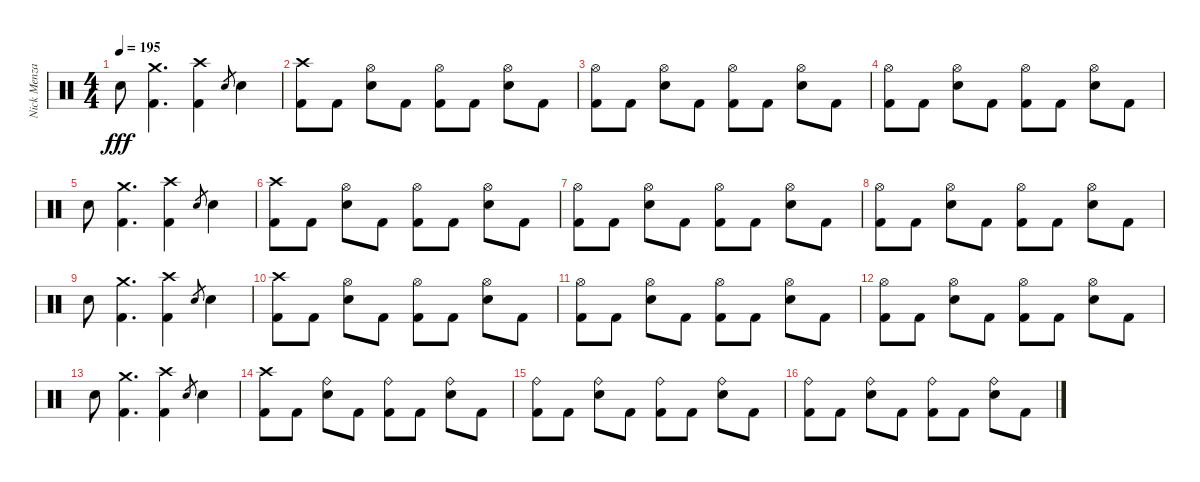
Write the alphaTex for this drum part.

\track ("Nick Menza (Drums)" "Nick Menza") {instrument percussion}
\staff {score}
\articulation defaults
\ts (4 4)
\tempo 195
\clef neutral
\ks c "Electric Snare (hit)".8{dy fff}
("Kick (hit) 2" "Crash medium (hit)").4{d} ("Kick (hit) 2" "Crash high (hit)").4 "Electric Snare (hit)".8{gr} "Electric Snare (hit)".4 |
("Kick (hit) 2" "Crash high (hit)").8 "Kick (hit) 2".8 ("Electric Snare (hit)" "Hi-Hat (open)").8 "Kick (hit) 2".8 ("Kick (hit) 2" "Hi-Hat (open)").8 "Kick (hit) 2".8 ("Electric Snare (hit)" "Hi-Hat (open)").8 "Kick (hit) 2".8 |
("Kick (hit) 2" "Hi-Hat (open)").8 "Kick (hit) 2".8 ("Electric Snare (hit)" "Hi-Hat (open)").8 "Kick (hit) 2".8 ("Kick (hit) 2" "Hi-Hat (open)").8 "Kick (hit) 2".8 ("Electric Snare (hit)" "Hi-Hat (open)").8 "Kick (hit) 2".8 |
("Kick (hit) 2" "Hi-Hat (open)").8 "Kick (hit) 2".8 ("Electric Snare (hit)" "Hi-Hat (open)").8 "Kick (hit) 2".8 ("Kick (hit) 2" "Hi-Hat (open)").8 "Kick (hit) 2".8 ("Electric Snare (hit)" "Hi-Hat (open)").8 "Kick (hit) 2".8 |
"Electric Snare (hit)".8 ("Kick (hit) 2" "Crash medium (hit)").4{d} ("Kick (hit) 2" "Crash high (hit)").4 "Electric Snare (hit)".8{gr} "Electric Snare (hit)".4 |
("Kick (hit) 2" "Crash high (hit)").8 "Kick (hit) 2".8 ("Electric Snare (hit)" "Hi-Hat (open)").8 "Kick (hit) 2".8 ("Kick (hit) 2" "Hi-Hat (open)").8 "Kick (hit) 2".8 ("Electric Snare (hit)" "Hi-Hat (open)").8 "Kick (hit) 2".8 |
("Kick (hit) 2" "Hi-Hat (open)").8 "Kick (hit) 2".8 ("Electric Snare (hit)" "Hi-Hat (open)").8 "Kick (hit) 2".8 ("Kick (hit) 2" "Hi-Hat (open)").8 "Kick (hit) 2".8 ("Electric Snare (hit)" "Hi-Hat (open)").8 "Kick (hit) 2".8 |
("Kick (hit) 2" "Hi-Hat (open)").8 "Kick (hit) 2".8 ("Electric Snare (hit)" "Hi-Hat (open)").8 "Kick (hit) 2".8 ("Kick (hit) 2" "Hi-Hat (open)").8 "Kick (hit) 2".8 ("Electric Snare (hit)" "Hi-Hat (open)").8 "Kick (hit) 2".8 |
"Electric Snare (hit)".8 ("Kick (hit) 2" "Crash medium (hit)").4{d} ("Kick (hit) 2" "Crash high (hit)").4 "Electric Snare (hit)".8{gr} "Electric Snare (hit)".4 |
("Kick (hit) 2" "Crash high (hit)").8 "Kick (hit) 2".8 ("Electric Snare (hit)" "Hi-Hat (open)").8 "Kick (hit) 2".8 ("Kick (hit) 2" "Hi-Hat (open)").8 "Kick (hit) 2".8 ("Electric Snare (hit)" "Hi-Hat (open)").8 "Kick (hit) 2".8 |
("Kick (hit) 2" "Hi-Hat (open)").8 "Kick (hit) 2".8 ("Electric Snare (hit)" "Hi-Hat (open)").8 "Kick (hit) 2".8 ("Kick (hit) 2" "Hi-Hat (open)").8 "Kick (hit) 2".8 ("Electric Snare (hit)" "Hi-Hat (open)").8 "Kick (hit) 2".8 |
("Kick (hit) 2" "Hi-Hat (open)").8 "Kick (hit) 2".8 ("Electric Snare (hit)" "Hi-Hat (open)").8 "Kick (hit) 2".8 ("Kick (hit) 2" "Hi-Hat (open)").8 "Kick (hit) 2".8 ("Electric Snare (hit)" "Hi-Hat (open)").8 "Kick (hit) 2".8 |
"Electric Snare (hit)".8 ("Kick (hit) 2" "Crash medium (hit)").4{d} ("Kick (hit) 2" "Crash high (hit)").4 "Electric Snare (hit)".8{gr} "Electric Snare (hit)".4 |
("Kick (hit) 2" "Crash high (hit)").8 "Kick (hit) 2".8 ("Electric Snare (hit)" "Ride (bell)").8 "Kick (hit) 2".8 ("Kick (hit) 2" "Ride (bell)").8 "Kick (hit) 2".8 ("Electric Snare (hit)" "Ride (bell)").8 "Kick (hit) 2".8 |
("Kick (hit) 2" "Ride (bell)").8 "Kick (hit) 2".8 ("Electric Snare (hit)" "Ride (bell)").8 "Kick (hit) 2".8 ("Kick (hit) 2" "Ride (bell)").8 "Kick (hit) 2".8 ("Electric Snare (hit)" "Ride (bell)").8 "Kick (hit) 2".8 |
("Kick (hit) 2" "Ride (bell)").8 "Kick (hit) 2".8 ("Electric Snare (hit)" "Ride (bell)").8 "Kick (hit) 2".8 ("Kick (hit) 2" "Ride (bell)").8 "Kick (hit) 2".8 ("Electric Snare (hit)" "Ride (bell)").8 "Kick (hit) 2".8
